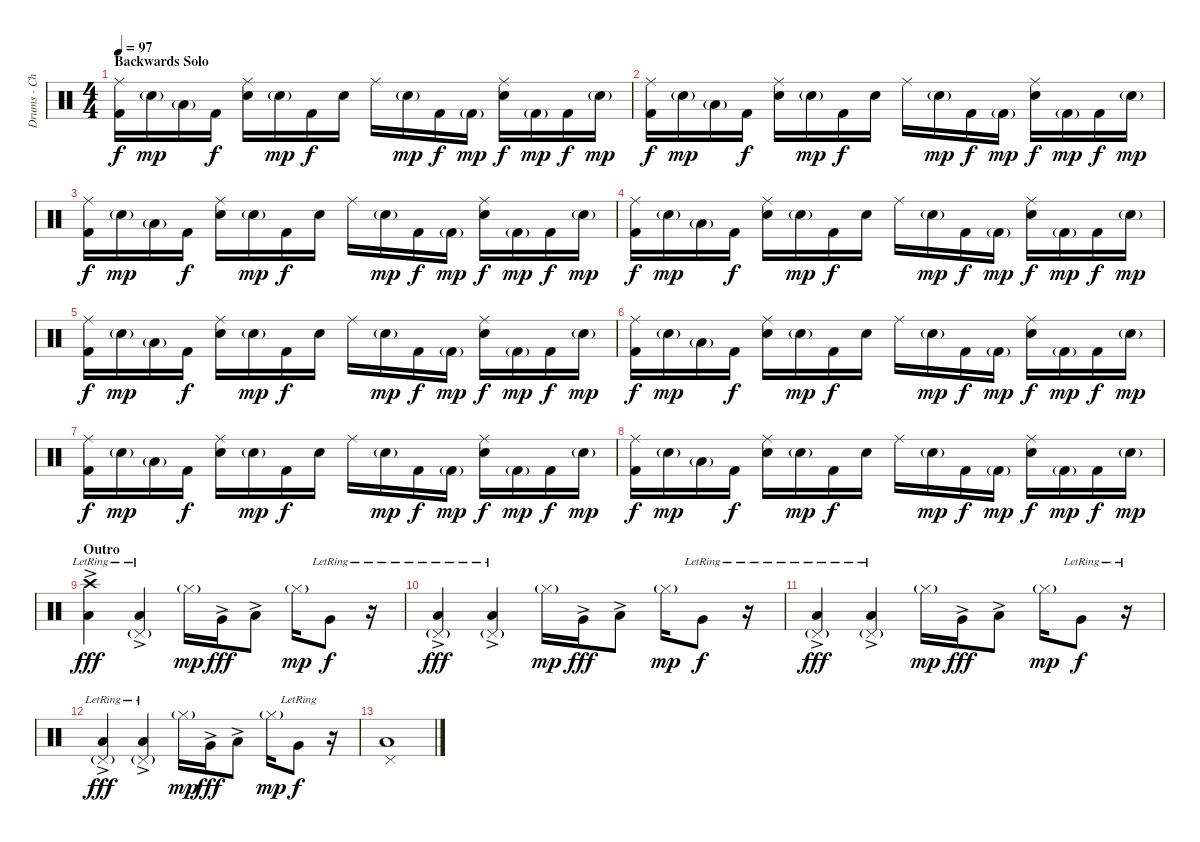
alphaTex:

\track ("Drums - Chad S" "Drums - Ch") {instrument percussion}
\staff {score}
\articulation defaults
\ts (4 4)
\section ("" "Backwards Solo")
\tempo 97
\clef neutral
\ks c
("Ride (middle)" "Kick (hit) 2").16{dy f} "Snare (hit) 2"{g}.16{dy mp} "Low Floor Tom (hit)"{g}.16 "Kick (hit) 2".16{dy f} ("Ride (middle)" "Snare (hit) 2").16 "Snare (hit) 2"{g}.16{dy mp} "Kick (hit) 2".16{dy f} "Snare (hit) 2".16 "Ride (middle)".16 "Snare (hit) 2"{g}.16{dy mp} "Kick (hit) 2".16{dy f} "Kick (hit) 2"{g}.16{dy mp} ("Ride (middle)" "Snare (hit) 2").16{dy f} "Kick (hit) 2"{g}.16{dy mp} "Kick (hit) 2".16{dy f} "Snare (hit) 2"{g}.16{dy mp} |
("Ride (middle)" "Kick (hit) 2").16{dy f} "Snare (hit) 2"{g}.16{dy mp} "Low Floor Tom (hit)"{g}.16 "Kick (hit) 2".16{dy f} ("Ride (middle)" "Snare (hit) 2").16 "Snare (hit) 2"{g}.16{dy mp} "Kick (hit) 2".16{dy f} "Snare (hit) 2".16 "Ride (middle)".16 "Snare (hit) 2"{g}.16{dy mp} "Kick (hit) 2".16{dy f} "Kick (hit) 2"{g}.16{dy mp} ("Ride (middle)" "Snare (hit) 2").16{dy f} "Kick (hit) 2"{g}.16{dy mp} "Kick (hit) 2".16{dy f} "Snare (hit) 2"{g}.16{dy mp} |
("Ride (middle)" "Kick (hit) 2").16{dy f} "Snare (hit) 2"{g}.16{dy mp} "Low Floor Tom (hit)"{g}.16 "Kick (hit) 2".16{dy f} ("Ride (middle)" "Snare (hit) 2").16 "Snare (hit) 2"{g}.16{dy mp} "Kick (hit) 2".16{dy f} "Snare (hit) 2".16 "Ride (middle)".16 "Snare (hit) 2"{g}.16{dy mp} "Kick (hit) 2".16{dy f} "Kick (hit) 2"{g}.16{dy mp} ("Ride (middle)" "Snare (hit) 2").16{dy f} "Kick (hit) 2"{g}.16{dy mp} "Kick (hit) 2".16{dy f} "Snare (hit) 2"{g}.16{dy mp} |
("Ride (middle)" "Kick (hit) 2").16{dy f} "Snare (hit) 2"{g}.16{dy mp} "Low Floor Tom (hit)"{g}.16 "Kick (hit) 2".16{dy f} ("Ride (middle)" "Snare (hit) 2").16 "Snare (hit) 2"{g}.16{dy mp} "Kick (hit) 2".16{dy f} "Snare (hit) 2".16 "Ride (middle)".16 "Snare (hit) 2"{g}.16{dy mp} "Kick (hit) 2".16{dy f} "Kick (hit) 2"{g}.16{dy mp} ("Ride (middle)" "Snare (hit) 2").16{dy f} "Kick (hit) 2"{g}.16{dy mp} "Kick (hit) 2".16{dy f} "Snare (hit) 2"{g}.16{dy mp} |
("Ride (middle)" "Kick (hit) 2").16{dy f} "Snare (hit) 2"{g}.16{dy mp} "Low Floor Tom (hit)"{g}.16 "Kick (hit) 2".16{dy f} ("Ride (middle)" "Snare (hit) 2").16 "Snare (hit) 2"{g}.16{dy mp} "Kick (hit) 2".16{dy f} "Snare (hit) 2".16 "Ride (middle)".16 "Snare (hit) 2"{g}.16{dy mp} "Kick (hit) 2".16{dy f} "Kick (hit) 2"{g}.16{dy mp} ("Ride (middle)" "Snare (hit) 2").16{dy f} "Kick (hit) 2"{g}.16{dy mp} "Kick (hit) 2".16{dy f} "Snare (hit) 2"{g}.16{dy mp} |
("Ride (middle)" "Kick (hit) 2").16{dy f} "Snare (hit) 2"{g}.16{dy mp} "Low Floor Tom (hit)"{g}.16 "Kick (hit) 2".16{dy f} ("Ride (middle)" "Snare (hit) 2").16 "Snare (hit) 2"{g}.16{dy mp} "Kick (hit) 2".16{dy f} "Snare (hit) 2".16 "Ride (middle)".16 "Snare (hit) 2"{g}.16{dy mp} "Kick (hit) 2".16{dy f} "Kick (hit) 2"{g}.16{dy mp} ("Ride (middle)" "Snare (hit) 2").16{dy f} "Kick (hit) 2"{g}.16{dy mp} "Kick (hit) 2".16{dy f} "Snare (hit) 2"{g}.16{dy mp} |
("Ride (middle)" "Kick (hit) 2").16{dy f} "Snare (hit) 2"{g}.16{dy mp} "Low Floor Tom (hit)"{g}.16 "Kick (hit) 2".16{dy f} ("Ride (middle)" "Snare (hit) 2").16 "Snare (hit) 2"{g}.16{dy mp} "Kick (hit) 2".16{dy f} "Snare (hit) 2".16 "Ride (middle)".16 "Snare (hit) 2"{g}.16{dy mp} "Kick (hit) 2".16{dy f} "Kick (hit) 2"{g}.16{dy mp} ("Ride (middle)" "Snare (hit) 2").16{dy f} "Kick (hit) 2"{g}.16{dy mp} "Kick (hit) 2".16{dy f} "Snare (hit) 2"{g}.16{dy mp} |
("Ride (middle)" "Kick (hit) 2").16{dy f} "Snare (hit) 2"{g}.16{dy mp} "Low Floor Tom (hit)"{g}.16 "Kick (hit) 2".16{dy f} ("Ride (middle)" "Snare (hit) 2").16 "Snare (hit) 2"{g}.16{dy mp} "Kick (hit) 2".16{dy f} "Snare (hit) 2".16 "Ride (middle)".16 "Snare (hit) 2"{g}.16{dy mp} "Kick (hit) 2".16{dy f} "Kick (hit) 2"{g}.16{dy mp} ("Ride (middle)" "Snare (hit) 2").16{dy f} "Kick (hit) 2"{g}.16{dy mp} "Kick (hit) 2".16{dy f} "Snare (hit) 2"{g}.16{dy mp} |
\section ("" "Outro")
("Crash high (hit)" "Low Floor Tom (hit)"{ac lr}).4{dy fff} ("Pedal Hi-Hat (hit)"{g} "Low Floor Tom (hit)"{ac lr}).4 "Hi-Hat (closed)"{g}.16{dy mp} "Very Low Tom (hit)"{ac}.16{dy fff} "Low Floor Tom (hit)"{ac}.8 "Hi-Hat (closed)"{g}.16{dy mp} "Very Low Tom (hit)"{lr}.8{dy f} r.16 |
("Pedal Hi-Hat (hit)"{g} "Low Floor Tom (hit)"{ac lr}).4{dy fff} ("Pedal Hi-Hat (hit)"{g} "Low Floor Tom (hit)"{ac lr}).4 "Hi-Hat (closed)"{g}.16{dy mp} "Very Low Tom (hit)"{ac}.16{dy fff} "Low Floor Tom (hit)"{ac}.8 "Hi-Hat (closed)"{g}.16{dy mp} "Very Low Tom (hit)"{lr}.8{dy f} r.16 |
("Pedal Hi-Hat (hit)"{g} "Low Floor Tom (hit)"{ac lr}).4{dy fff} ("Pedal Hi-Hat (hit)"{g} "Low Floor Tom (hit)"{ac lr}).4 "Hi-Hat (closed)"{g}.16{dy mp} "Very Low Tom (hit)"{ac}.16{dy fff} "Low Floor Tom (hit)"{ac}.8 "Hi-Hat (closed)"{g}.16{dy mp} "Very Low Tom (hit)"{lr}.8{dy f} r.16 |
("Pedal Hi-Hat (hit)"{g} "Low Floor Tom (hit)"{ac lr}).4{dy fff} ("Pedal Hi-Hat (hit)"{g} "Low Floor Tom (hit)"{ac lr}).4 "Hi-Hat (closed)"{g}.16{dy mp} "Very Low Tom (hit)"{ac}.16{dy fff} "Low Floor Tom (hit)"{ac}.8 "Hi-Hat (closed)"{g}.16{dy mp} "Very Low Tom (hit)"{lr}.8{dy f} r.16 |
("Pedal Hi-Hat (hit)" "Low Floor Tom (hit)").1
